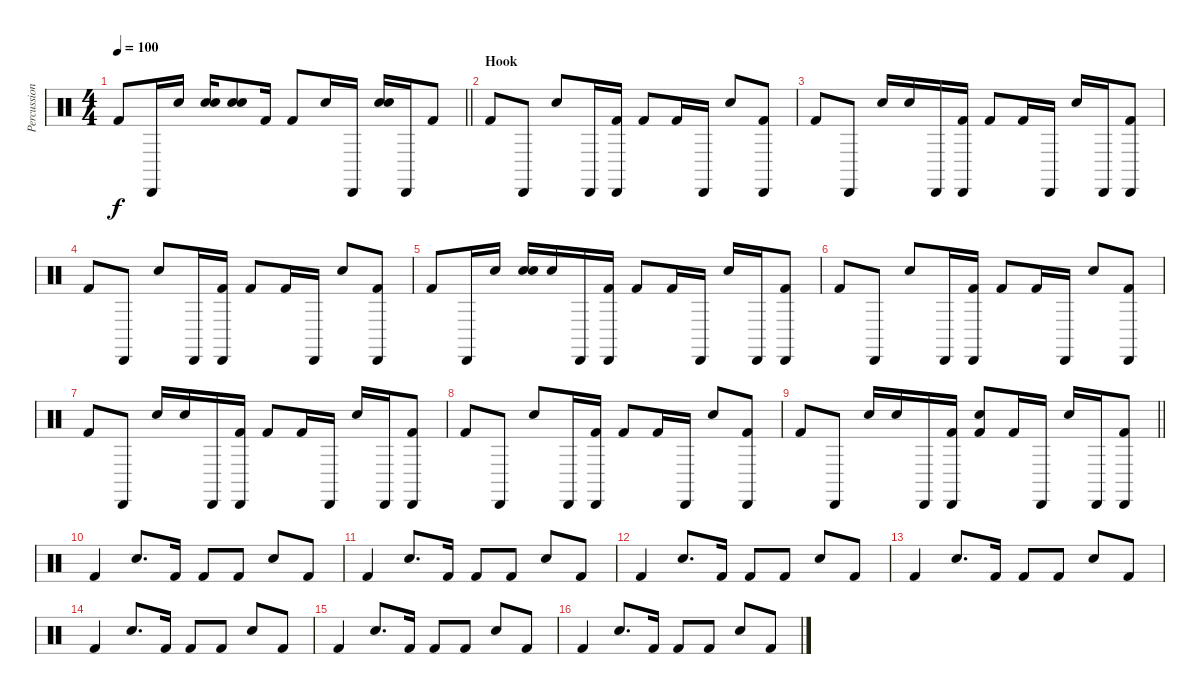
\track ("Percussion" "Percussion") {instrument percussion}
\staff {score}
\articulation defaults
\ts (4 4)
\tempo 100
\clef neutral
\barLineRight lightlight
\ks c "Kick (hit) 2".8{dy f} "Cabasa (hit)".16 "Snare (hit) 2".16
("Hand Clap (hit)" "Snare (hit) 2").16 ("Hand Clap (hit)" "Snare (hit) 2").8 "Kick (hit) 2".16 "Kick (hit) 2".8 "Snare (hit) 2".16 "Cabasa (hit)".16 ("Hand Clap (hit)" "Snare (hit) 2").16 "Cabasa (hit)".16 "Kick (hit) 2".8 |
\section ("" "Hook")
"Kick (hit) 2".8 "Cabasa (hit)".8 "Hand Clap (hit)".8 "Cabasa (hit)".16 ("Cabasa (hit)" "Kick (hit) 2").16 "Kick (hit) 2".8 "Kick (hit) 2".16 "Cabasa (hit)".16 "Hand Clap (hit)".8 ("Cabasa (hit)" "Kick (hit) 2").8 |
"Kick (hit) 2".8 "Cabasa (hit)".8 "Hand Clap (hit)".16 "Hand Clap (hit)".16 "Cabasa (hit)".16 ("Cabasa (hit)" "Kick (hit) 2").16 "Kick (hit) 2".8 "Kick (hit) 2".16 "Cabasa (hit)".16 "Hand Clap (hit)".16 "Cabasa (hit)".16 ("Cabasa (hit)" "Kick (hit) 2").8 |
"Kick (hit) 2".8 "Cabasa (hit)".8 "Hand Clap (hit)".8 "Cabasa (hit)".16 ("Cabasa (hit)" "Kick (hit) 2").16 "Kick (hit) 2".8 "Kick (hit) 2".16 "Cabasa (hit)".16 "Hand Clap (hit)".8 ("Cabasa (hit)" "Kick (hit) 2").8 |
"Kick (hit) 2".8 "Cabasa (hit)".16 "Snare (hit) 2".16 ("Hand Clap (hit)" "Snare (hit) 2").16 "Snare (hit) 2".16 "Cabasa (hit)".16 ("Cabasa (hit)" "Kick (hit) 2").16 "Kick (hit) 2".8 "Kick (hit) 2".16 "Cabasa (hit)".16 "Hand Clap (hit)".16 "Cabasa (hit)".16 ("Cabasa (hit)" "Kick (hit) 2").8 |
"Kick (hit) 2".8 "Cabasa (hit)".8 "Hand Clap (hit)".8 "Cabasa (hit)".16 ("Cabasa (hit)" "Kick (hit) 2").16 "Kick (hit) 2".8 "Kick (hit) 2".16 "Cabasa (hit)".16 "Hand Clap (hit)".8 ("Cabasa (hit)" "Kick (hit) 2").8 |
"Kick (hit) 2".8 "Cabasa (hit)".8 "Hand Clap (hit)".16 "Hand Clap (hit)".16 "Cabasa (hit)".16 ("Cabasa (hit)" "Kick (hit) 2").16 "Kick (hit) 2".8 "Kick (hit) 2".16 "Cabasa (hit)".16 "Hand Clap (hit)".16 "Cabasa (hit)".16 ("Cabasa (hit)" "Kick (hit) 2").8 |
"Kick (hit) 2".8 "Cabasa (hit)".8 "Hand Clap (hit)".8 "Cabasa (hit)".16 ("Cabasa (hit)" "Kick (hit) 2").16 "Kick (hit) 2".8 "Kick (hit) 2".16 "Cabasa (hit)".16 "Hand Clap (hit)".8 ("Cabasa (hit)" "Kick (hit) 2").8 |
\barLineRight lightlight "Kick (hit) 2".8 "Cabasa (hit)".8 "Hand Clap (hit)".16 "Hand Clap (hit)".16 "Cabasa (hit)".16
("Cabasa (hit)" "Kick (hit) 2").16 ("Hand Clap (hit)" "Kick (hit) 2").8 "Kick (hit) 2".16 "Cabasa (hit)".16 "Hand Clap (hit)".16 "Cabasa (hit)".16 ("Cabasa (hit)" "Kick (hit) 2").8 |
"Kick (hit) 2".4 "Hand Clap (hit)".8{d} "Kick (hit) 2".16 "Kick (hit) 2".8 "Kick (hit) 2".8 "Hand Clap (hit)".8 "Kick (hit) 2".8 |
"Kick (hit) 2".4 "Hand Clap (hit)".8{d} "Kick (hit) 2".16 "Kick (hit) 2".8 "Kick (hit) 2".8 "Hand Clap (hit)".8 "Kick (hit) 2".8 |
"Kick (hit) 2".4 "Hand Clap (hit)".8{d} "Kick (hit) 2".16 "Kick (hit) 2".8 "Kick (hit) 2".8 "Hand Clap (hit)".8 "Kick (hit) 2".8 |
"Kick (hit) 2".4 "Hand Clap (hit)".8{d} "Kick (hit) 2".16 "Kick (hit) 2".8 "Kick (hit) 2".8 "Hand Clap (hit)".8 "Kick (hit) 2".8 |
"Kick (hit) 2".4 "Hand Clap (hit)".8{d} "Kick (hit) 2".16 "Kick (hit) 2".8 "Kick (hit) 2".8 "Hand Clap (hit)".8 "Kick (hit) 2".8 |
"Kick (hit) 2".4 "Hand Clap (hit)".8{d} "Kick (hit) 2".16 "Kick (hit) 2".8 "Kick (hit) 2".8 "Hand Clap (hit)".8 "Kick (hit) 2".8 |
"Kick (hit) 2".4 "Hand Clap (hit)".8{d} "Kick (hit) 2".16 "Kick (hit) 2".8 "Kick (hit) 2".8 "Hand Clap (hit)".8 "Kick (hit) 2".8
